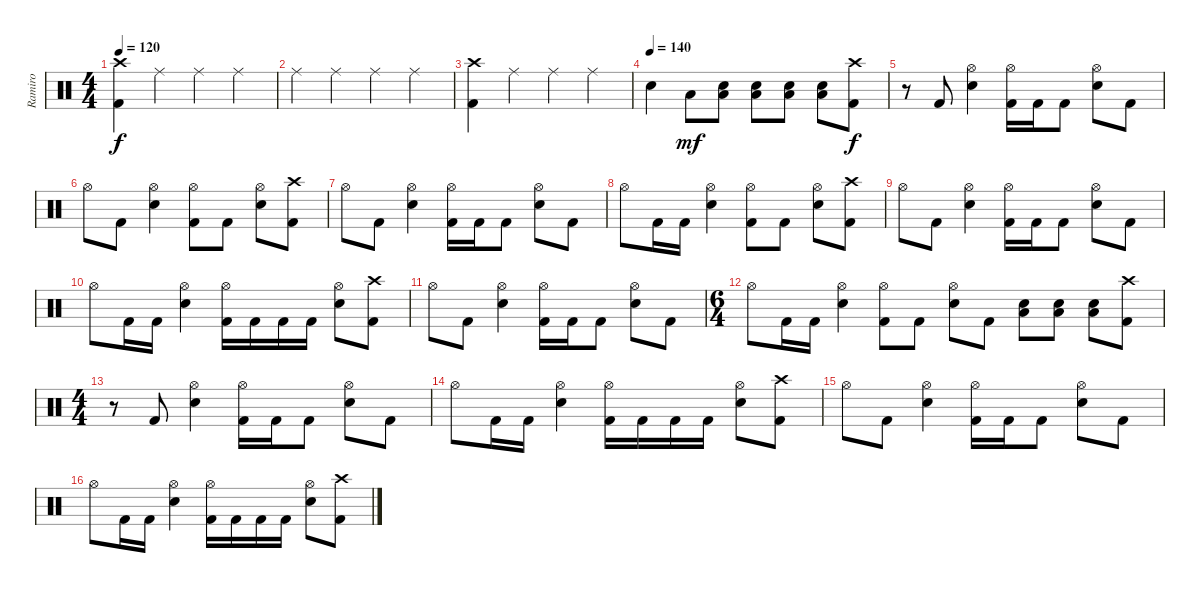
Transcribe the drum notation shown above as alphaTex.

\track ("Ramiro" "Ramiro") {instrument percussion}
\staff {score}
\articulation defaults
\ts (4 4)
\tempo 120
\clef neutral
\ks c
("Kick (hit) 2" "Crash high (hit)").4{dy f} "Ride (middle)".4 "Ride (middle)".4 "Ride (middle)".4 |
"Ride (middle)".4 "Ride (middle)".4 "Ride (middle)".4 "Ride (middle)".4 |
("Crash high (hit)" "Kick (hit) 2").4 "Ride (middle)".4 "Ride (middle)".4 "Ride (middle)".4 |
\tempo (140)
"Electric Snare (hit)".4 "Low Tom (hit)".8{dy mf} ("Electric Snare (hit)" "Low Tom (hit)").8 ("Electric Snare (hit)" "Low Tom (hit)").8 ("Electric Snare (hit)" "Low Tom (hit)").8 ("Electric Snare (hit)" "Low Tom (hit)").8 ("Crash high (hit)" "Kick (hit) 2").8{dy f} |
r.8 "Kick (hit) 2".8 ("Electric Snare (hit)" "Hi-Hat (open)").4 ("Kick (hit) 2" "Hi-Hat (open)").16 "Kick (hit) 2".16 "Kick (hit) 2".8 ("Hi-Hat (open)" "Electric Snare (hit)").8 "Kick (hit) 2".8 |
"Hi-Hat (open)".8 "Kick (hit) 2".8 ("Electric Snare (hit)" "Hi-Hat (open)").4 ("Hi-Hat (open)" "Kick (hit) 2").8 "Kick (hit) 2".8 ("Hi-Hat (open)" "Electric Snare (hit)").8 ("Kick (hit) 2" "Crash high (hit)").8 |
"Hi-Hat (open)".8 "Kick (hit) 2".8 ("Electric Snare (hit)" "Hi-Hat (open)").4 ("Kick (hit) 2" "Hi-Hat (open)").16 "Kick (hit) 2".16 "Kick (hit) 2".8 ("Hi-Hat (open)" "Electric Snare (hit)").8 "Kick (hit) 2".8 |
"Hi-Hat (open)".8 "Kick (hit) 2".16 "Kick (hit) 2".16 ("Electric Snare (hit)" "Hi-Hat (open)").4 ("Hi-Hat (open)" "Kick (hit) 2").8 "Kick (hit) 2".8 ("Hi-Hat (open)" "Electric Snare (hit)").8 ("Crash high (hit)" "Kick (hit) 2").8 |
"Hi-Hat (open)".8 "Kick (hit) 2".8 ("Electric Snare (hit)" "Hi-Hat (open)").4 ("Kick (hit) 2" "Hi-Hat (open)").16 "Kick (hit) 2".16 "Kick (hit) 2".8 ("Hi-Hat (open)" "Electric Snare (hit)").8 "Kick (hit) 2".8 |
"Hi-Hat (open)".8 "Kick (hit) 2".16 "Kick (hit) 2".16 ("Electric Snare (hit)" "Hi-Hat (open)").4 ("Hi-Hat (open)" "Kick (hit) 2").16 "Kick (hit) 2".16 "Kick (hit) 2".16 "Kick (hit) 2".16 ("Hi-Hat (open)" "Electric Snare (hit)").8 ("Kick (hit) 2" "Crash high (hit)").8 |
"Hi-Hat (open)".8 "Kick (hit) 2".8 ("Electric Snare (hit)" "Hi-Hat (open)").4 ("Kick (hit) 2" "Hi-Hat (open)").16 "Kick (hit) 2".16 "Kick (hit) 2".8 ("Hi-Hat (open)" "Electric Snare (hit)").8 "Kick (hit) 2".8 |
\ts (6 4)
"Hi-Hat (open)".8 "Kick (hit) 2".16 "Kick (hit) 2".16 ("Electric Snare (hit)" "Hi-Hat (open)").4 ("Hi-Hat (open)" "Kick (hit) 2").8 "Kick (hit) 2".8 ("Hi-Hat (open)" "Electric Snare (hit)").8 "Kick (hit) 2".8 ("Electric Snare (hit)" "Low Tom (hit)").8 ("Low Tom (hit)" "Electric Snare (hit)").8 ("Low Tom (hit)" "Electric Snare (hit)").8 ("Kick (hit) 2" "Crash high (hit)").8 |
\ts (4 4)
r.8 "Kick (hit) 2".8 ("Electric Snare (hit)" "Hi-Hat (open)").4 ("Kick (hit) 2" "Hi-Hat (open)").16 "Kick (hit) 2".16 "Kick (hit) 2".8 ("Hi-Hat (open)" "Electric Snare (hit)").8 "Kick (hit) 2".8 |
"Hi-Hat (open)".8 "Kick (hit) 2".16 "Kick (hit) 2".16 ("Electric Snare (hit)" "Hi-Hat (open)").4 ("Hi-Hat (open)" "Kick (hit) 2").16 "Kick (hit) 2".16 "Kick (hit) 2".16 "Kick (hit) 2".16 ("Hi-Hat (open)" "Electric Snare (hit)").8 ("Kick (hit) 2" "Crash high (hit)").8 |
"Hi-Hat (open)".8 "Kick (hit) 2".8 ("Electric Snare (hit)" "Hi-Hat (open)").4 ("Kick (hit) 2" "Hi-Hat (open)").16 "Kick (hit) 2".16 "Kick (hit) 2".8 ("Hi-Hat (open)" "Electric Snare (hit)").8 "Kick (hit) 2".8 |
"Hi-Hat (open)".8 "Kick (hit) 2".16 "Kick (hit) 2".16 ("Electric Snare (hit)" "Hi-Hat (open)").4 ("Hi-Hat (open)" "Kick (hit) 2").16 "Kick (hit) 2".16 "Kick (hit) 2".16 "Kick (hit) 2".16 ("Hi-Hat (open)" "Electric Snare (hit)").8 ("Kick (hit) 2" "Crash high (hit)").8
